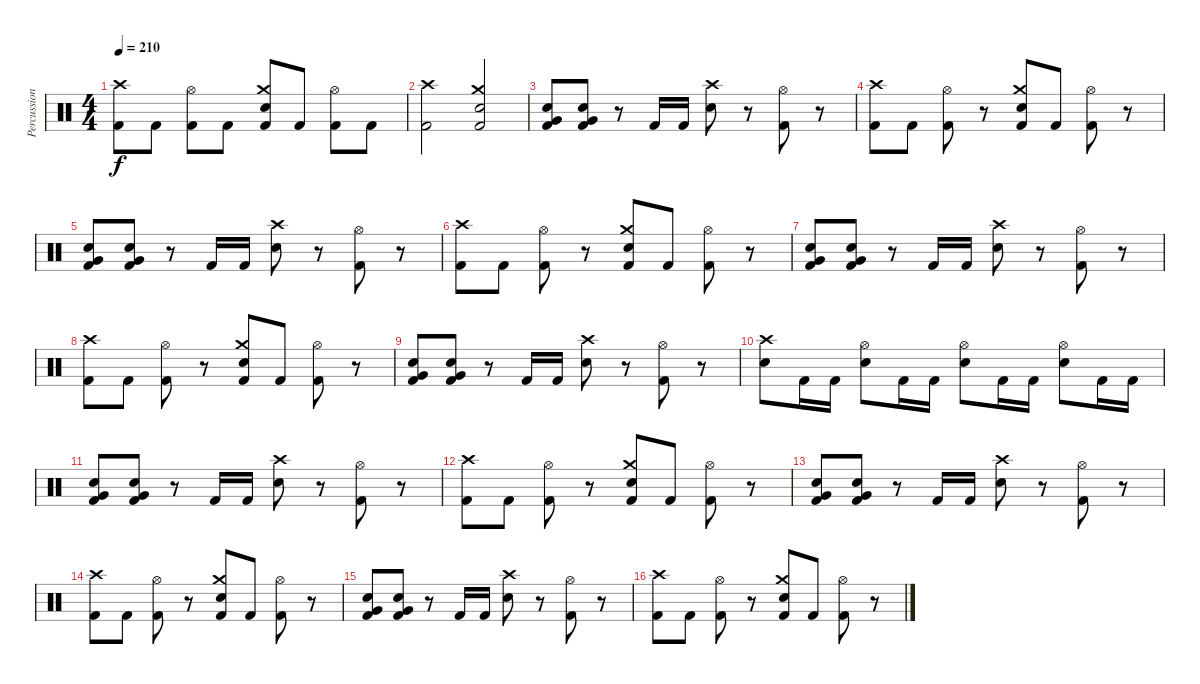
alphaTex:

\track ("Percussion" "Percussion") {instrument percussion}
\staff {score}
\articulation defaults
\ts (4 4)
\tempo 210
\clef neutral
\ks c
("Crash high (hit)" "Kick (hit) 2").8{dy f} "Kick (hit) 2".8 ("Hi-Hat (open)" "Kick (hit) 2").8 "Kick (hit) 2".8 ("Crash medium (hit)" "Electric Snare (hit)" "Kick (hit) 2").8 "Kick (hit) 2".8 ("Hi-Hat (open)" "Kick (hit) 2").8 "Kick (hit) 2".8 |
("Crash high (hit)" "Kick (hit) 2").2 ("Crash medium (hit)" "Electric Snare (hit)" "Kick (hit) 2").2 |
("Very Low Tom (hit)" "Electric Snare (hit)" "Kick (hit) 2").8 ("Very Low Tom (hit)" "Electric Snare (hit)" "Kick (hit) 2").8 r.8 "Kick (hit) 2".16 "Kick (hit) 2".16 ("Crash high (hit)" "Electric Snare (hit)").8 r.8 ("Hi-Hat (open)" "Kick (hit) 2").8 r.8 |
("Crash high (hit)" "Kick (hit) 2").8 "Kick (hit) 2".8 ("Hi-Hat (open)" "Kick (hit) 2").8 r.8 ("Crash medium (hit)" "Electric Snare (hit)" "Kick (hit) 2").8 "Kick (hit) 2".8 ("Hi-Hat (open)" "Kick (hit) 2").8 r.8 |
("Very Low Tom (hit)" "Electric Snare (hit)" "Kick (hit) 2").8 ("Very Low Tom (hit)" "Electric Snare (hit)" "Kick (hit) 2").8 r.8 "Kick (hit) 2".16 "Kick (hit) 2".16 ("Crash high (hit)" "Electric Snare (hit)").8 r.8 ("Hi-Hat (open)" "Kick (hit) 2").8 r.8 |
("Crash high (hit)" "Kick (hit) 2").8 "Kick (hit) 2".8 ("Hi-Hat (open)" "Kick (hit) 2").8 r.8 ("Crash medium (hit)" "Electric Snare (hit)" "Kick (hit) 2").8 "Kick (hit) 2".8 ("Hi-Hat (open)" "Kick (hit) 2").8 r.8 |
("Very Low Tom (hit)" "Electric Snare (hit)" "Kick (hit) 2").8 ("Very Low Tom (hit)" "Electric Snare (hit)" "Kick (hit) 2").8 r.8 "Kick (hit) 2".16 "Kick (hit) 2".16 ("Crash high (hit)" "Electric Snare (hit)").8 r.8 ("Hi-Hat (open)" "Kick (hit) 2").8 r.8 |
("Crash high (hit)" "Kick (hit) 2").8 "Kick (hit) 2".8 ("Hi-Hat (open)" "Kick (hit) 2").8 r.8 ("Crash medium (hit)" "Electric Snare (hit)" "Kick (hit) 2").8 "Kick (hit) 2".8 ("Hi-Hat (open)" "Kick (hit) 2").8 r.8 |
("Very Low Tom (hit)" "Electric Snare (hit)" "Kick (hit) 2").8 ("Very Low Tom (hit)" "Electric Snare (hit)" "Kick (hit) 2").8 r.8 "Kick (hit) 2".16 "Kick (hit) 2".16 ("Crash high (hit)" "Electric Snare (hit)").8 r.8 ("Hi-Hat (open)" "Kick (hit) 2").8 r.8 |
("Crash high (hit)" "Electric Snare (hit)").8 "Kick (hit) 2".16 "Kick (hit) 2".16 ("Hi-Hat (open)" "Electric Snare (hit)").8 "Kick (hit) 2".16 "Kick (hit) 2".16 ("Hi-Hat (open)" "Electric Snare (hit)").8 "Kick (hit) 2".16 "Kick (hit) 2".16 ("Hi-Hat (open)" "Electric Snare (hit)").8 "Kick (hit) 2".16 "Kick (hit) 2".16 |
("Very Low Tom (hit)" "Electric Snare (hit)" "Kick (hit) 2").8 ("Very Low Tom (hit)" "Electric Snare (hit)" "Kick (hit) 2").8 r.8 "Kick (hit) 2".16 "Kick (hit) 2".16 ("Crash high (hit)" "Electric Snare (hit)").8 r.8 ("Hi-Hat (open)" "Kick (hit) 2").8 r.8 |
("Crash high (hit)" "Kick (hit) 2").8 "Kick (hit) 2".8 ("Hi-Hat (open)" "Kick (hit) 2").8 r.8 ("Crash medium (hit)" "Electric Snare (hit)" "Kick (hit) 2").8 "Kick (hit) 2".8 ("Hi-Hat (open)" "Kick (hit) 2").8 r.8 |
("Very Low Tom (hit)" "Electric Snare (hit)" "Kick (hit) 2").8 ("Very Low Tom (hit)" "Electric Snare (hit)" "Kick (hit) 2").8 r.8 "Kick (hit) 2".16 "Kick (hit) 2".16 ("Crash high (hit)" "Electric Snare (hit)").8 r.8 ("Hi-Hat (open)" "Kick (hit) 2").8 r.8 |
("Crash high (hit)" "Kick (hit) 2").8 "Kick (hit) 2".8 ("Hi-Hat (open)" "Kick (hit) 2").8 r.8 ("Crash medium (hit)" "Electric Snare (hit)" "Kick (hit) 2").8 "Kick (hit) 2".8 ("Hi-Hat (open)" "Kick (hit) 2").8 r.8 |
("Very Low Tom (hit)" "Electric Snare (hit)" "Kick (hit) 2").8 ("Very Low Tom (hit)" "Electric Snare (hit)" "Kick (hit) 2").8 r.8 "Kick (hit) 2".16 "Kick (hit) 2".16 ("Crash high (hit)" "Electric Snare (hit)").8 r.8 ("Hi-Hat (open)" "Kick (hit) 2").8 r.8 |
("Crash high (hit)" "Kick (hit) 2").8 "Kick (hit) 2".8 ("Hi-Hat (open)" "Kick (hit) 2").8 r.8 ("Crash medium (hit)" "Electric Snare (hit)" "Kick (hit) 2").8 "Kick (hit) 2".8 ("Hi-Hat (open)" "Kick (hit) 2").8 r.8
